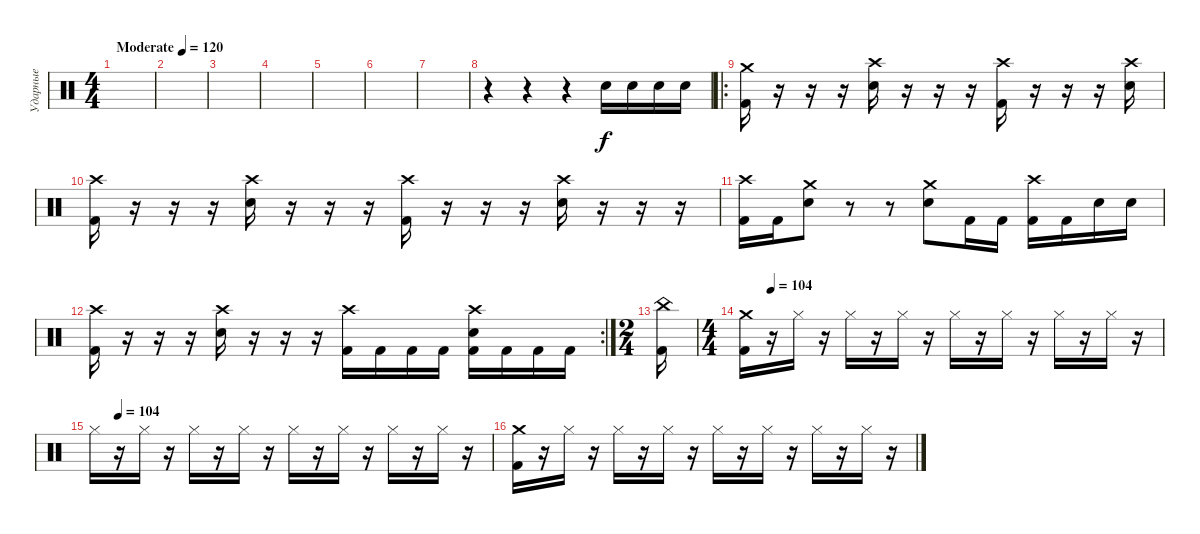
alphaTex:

\track ("Ударные" "Ударные") {instrument percussion}
\staff {score}
\articulation defaults
\ts (4 4)
\tempo (120 "Moderate")
\tempo 104
\tempo (120 "Moderate")
\clef neutral
\ks c
|
|
|
|
|
|
|
r.4 r.4 r.4 "Snare (hit) 2".16 "Snare (hit) 2".16 "Snare (hit) 2".16 "Snare (hit) 2".16 |
\ro
("Crash medium (hit)" "Kick (hit) 2").16 r.16 r.16 r.16 ("Crash high (hit)" "Snare (hit) 2").16 r.16 r.16 r.16 ("Crash high (hit)" "Kick (hit) 2").16 r.16 r.16 r.16 ("Crash high (hit)" "Snare (hit) 2").16 |
("Crash high (hit)" "Kick (hit) 2").16 r.16 r.16 r.16 ("Crash high (hit)" "Snare (hit) 2").16 r.16 r.16 r.16 ("Crash high (hit)" "Kick (hit) 2").16 r.16 r.16 r.16 ("Crash high (hit)" "Snare (hit) 2").16 r.16 r.16 r.16 |
("Crash high (hit)" "Kick (hit) 2").16 "Kick (hit) 2".16 ("Crash medium (hit)" "Snare (hit) 2").8 r.8 r.8 ("Electric Snare (hit)" "Crash medium (hit)").8 "Kick (hit) 2".16 "Kick (hit) 2".16 ("Kick (hit) 2" "Crash high (hit)").16 "Kick (hit) 2".16 "Snare (hit) 2".16 "Snare (hit) 2".16 |
\rc 2
("Crash high (hit)" "Kick (hit) 2").16 r.16 r.16 r.16 ("Crash high (hit)" "Snare (hit) 2").16 r.16 r.16 r.16 ("Crash high (hit)" "Kick (hit) 2").16 "Kick (hit) 2".16 "Kick (hit) 2".16 "Kick (hit) 2".16 ("Crash high (hit)" "Snare (hit) 2" "Kick (hit) 2").16 "Kick (hit) 2".16 "Kick (hit) 2".16 "Kick (hit) 2".16 |
\ts (2 4)
("China (hit)" "Kick (hit) 2").16 |
\ts (4 4)
\tempo (104 0.0625)
("Crash medium (hit)" "Kick (hit) 2").16 r.16 "Hi-Hat (closed)".16 r.16 "Hi-Hat (closed)".16 r.16 "Hi-Hat (closed)".16 r.16 "Hi-Hat (closed)".16 r.16 "Hi-Hat (closed)".16 r.16 "Hi-Hat (closed)".16 r.16 "Hi-Hat (closed)".16 r.16 |
\tempo (104 0.0625)
"Hi-Hat (closed)".16 r.16 "Hi-Hat (closed)".16 r.16 "Hi-Hat (closed)".16 r.16 "Hi-Hat (closed)".16 r.16 "Hi-Hat (closed)".16 r.16 "Hi-Hat (closed)".16 r.16 "Hi-Hat (closed)".16 r.16 "Hi-Hat (closed)".16 r.16 |
("Crash medium (hit)" "Kick (hit) 2").16 r.16 "Hi-Hat (closed)".16 r.16 "Hi-Hat (closed)".16 r.16 "Hi-Hat (closed)".16 r.16 "Hi-Hat (closed)".16 r.16 "Hi-Hat (closed)".16 r.16 "Hi-Hat (closed)".16 r.16 "Hi-Hat (closed)".16 r.16
